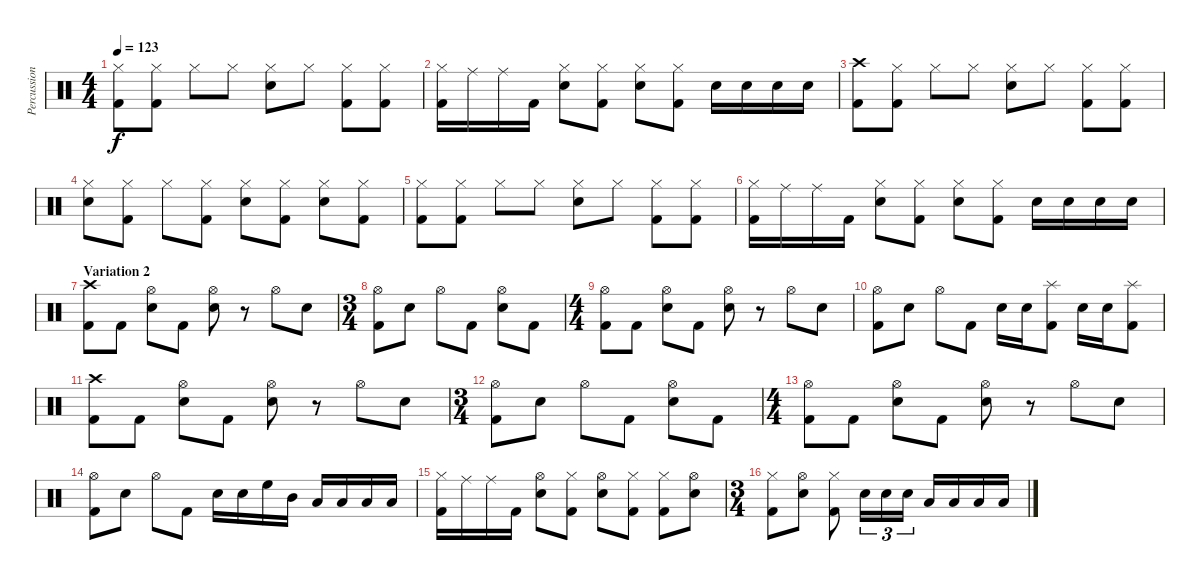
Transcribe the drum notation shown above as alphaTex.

\track ("Percussion" "Percussion") {instrument percussion}
\staff {score}
\articulation defaults
\ts (4 4)
\tempo 123
\clef neutral
\ks c
("Hi-Hat (closed)" "Kick (hit) 2").8{dy f} ("Hi-Hat (closed)" "Kick (hit) 2").8 "Hi-Hat (closed)".8 "Hi-Hat (closed)".8 ("Hi-Hat (closed)" "Electric Snare (hit)").8 "Hi-Hat (closed)".8 ("Hi-Hat (closed)" "Kick (hit) 2").8 ("Hi-Hat (closed)" "Kick (hit) 2").8 |
("Hi-Hat (closed)" "Kick (hit) 2").16 "Ride (middle)".16 "Ride (middle)".16 "Kick (hit) 2".16 ("Hi-Hat (closed)" "Electric Snare (hit)").8 ("Hi-Hat (closed)" "Kick (hit) 2").8 ("Hi-Hat (closed)" "Electric Snare (hit)").8 ("Hi-Hat (closed)" "Kick (hit) 2").8 "Electric Snare (hit)".16 "Electric Snare (hit)".16 "Electric Snare (hit)".16 "Electric Snare (hit)".16 |
("Crash high (hit)" "Kick (hit) 2").8 ("Hi-Hat (closed)" "Kick (hit) 2").8 "Hi-Hat (closed)".8 "Hi-Hat (closed)".8 ("Hi-Hat (closed)" "Electric Snare (hit)").8 "Hi-Hat (closed)".8 ("Hi-Hat (closed)" "Kick (hit) 2").8 ("Hi-Hat (closed)" "Kick (hit) 2").8 |
("Hi-Hat (closed)" "Electric Snare (hit)").8 ("Hi-Hat (closed)" "Kick (hit) 2").8 "Hi-Hat (closed)".8 ("Hi-Hat (closed)" "Kick (hit) 2").8 ("Hi-Hat (closed)" "Electric Snare (hit)").8 ("Hi-Hat (closed)" "Kick (hit) 2").8 ("Hi-Hat (closed)" "Electric Snare (hit)").8 ("Hi-Hat (closed)" "Kick (hit) 2").8 |
("Hi-Hat (closed)" "Kick (hit) 2").8 ("Hi-Hat (closed)" "Kick (hit) 2").8 "Hi-Hat (closed)".8 "Hi-Hat (closed)".8 ("Hi-Hat (closed)" "Electric Snare (hit)").8 "Hi-Hat (closed)".8 ("Hi-Hat (closed)" "Kick (hit) 2").8 ("Hi-Hat (closed)" "Kick (hit) 2").8 |
("Hi-Hat (closed)" "Kick (hit) 2").16 "Ride (middle)".16 "Ride (middle)".16 "Kick (hit) 2".16 ("Hi-Hat (closed)" "Electric Snare (hit)").8 ("Hi-Hat (closed)" "Kick (hit) 2").8 ("Hi-Hat (closed)" "Electric Snare (hit)").8 ("Hi-Hat (closed)" "Kick (hit) 2").8 "Electric Snare (hit)".16 "Electric Snare (hit)".16 "Electric Snare (hit)".16 "Electric Snare (hit)".16 |
\section ("" "Variation 2")
("Crash high (hit)" "Kick (hit) 2").8 "Kick (hit) 2".8 ("Hi-Hat (open)" "Electric Snare (hit)").8 "Kick (hit) 2".8 ("Hi-Hat (open)" "Electric Snare (hit)").8 r.8 "Hi-Hat (open)".8 "Electric Snare (hit)".8 |
\ts (3 4)
("Hi-Hat (open)" "Kick (hit) 2").8 "Electric Snare (hit)".8 "Hi-Hat (open)".8 "Kick (hit) 2".8 ("Hi-Hat (open)" "Electric Snare (hit)").8 "Kick (hit) 2".8 |
\ts (4 4)
("Hi-Hat (open)" "Kick (hit) 2").8 "Kick (hit) 2".8 ("Hi-Hat (open)" "Electric Snare (hit)").8 "Kick (hit) 2".8 ("Hi-Hat (open)" "Electric Snare (hit)").8 r.8 "Hi-Hat (open)".8 "Electric Snare (hit)".8 |
("Hi-Hat (open)" "Kick (hit) 2").8 "Electric Snare (hit)".8 "Hi-Hat (open)".8 "Kick (hit) 2".8 "Electric Snare (hit)".16 "Electric Snare (hit)".16 ("Splash (hit)" "Kick (hit) 2").8 "Electric Snare (hit)".16 "Electric Snare (hit)".16 ("Splash (hit)" "Kick (hit) 2").8 |
("Crash high (hit)" "Kick (hit) 2").8 "Kick (hit) 2".8 ("Hi-Hat (open)" "Electric Snare (hit)").8 "Kick (hit) 2".8 ("Hi-Hat (open)" "Electric Snare (hit)").8 r.8 "Hi-Hat (open)".8 "Electric Snare (hit)".8 |
\ts (3 4)
("Hi-Hat (open)" "Kick (hit) 2").8 "Electric Snare (hit)".8 "Hi-Hat (open)".8 "Kick (hit) 2".8 ("Hi-Hat (open)" "Electric Snare (hit)").8 "Kick (hit) 2".8 |
\ts (4 4)
("Hi-Hat (open)" "Kick (hit) 2").8 "Kick (hit) 2".8 ("Hi-Hat (open)" "Electric Snare (hit)").8 "Kick (hit) 2".8 ("Hi-Hat (open)" "Electric Snare (hit)").8 r.8 "Hi-Hat (open)".8 "Electric Snare (hit)".8 |
("Hi-Hat (open)" "Kick (hit) 2").8 "Electric Snare (hit)".8 "Hi-Hat (open)".8 "Kick (hit) 2".8 "Electric Snare (hit)".16 "Electric Snare (hit)".16 "High Floor Tom (hit)".16 "Mid Tom (hit)".16 "Low Tom (hit)".16 "Low Tom (hit)".16 "Low Floor Tom (hit)".16 "Low Floor Tom (hit)".16 |
("Hi-Hat (closed)" "Kick (hit) 2").16 "Ride (middle)".16 "Ride (middle)".16 "Kick (hit) 2".16 ("Hi-Hat (open)" "Electric Snare (hit)").8 ("Hi-Hat (closed)" "Kick (hit) 2").8 ("Hi-Hat (open)" "Electric Snare (hit)").8 ("Hi-Hat (closed)" "Kick (hit) 2").8 ("Hi-Hat (closed)" "Kick (hit) 2").8 ("Hi-Hat (open)" "Electric Snare (hit)").8 |
\ts (3 4)
("Hi-Hat (closed)" "Kick (hit) 2").8 ("Hi-Hat (open)" "Electric Snare (hit)").8 ("Hi-Hat (closed)" "Kick (hit) 2").8 "Electric Snare (hit)".16{tu (3 2)} "Electric Snare (hit)".16{tu (3 2)} "Electric Snare (hit)".16{tu (3 2)} "Low Tom (hit)".16 "Low Tom (hit)".16 "Low Floor Tom (hit)".16 "Low Floor Tom (hit)".16
